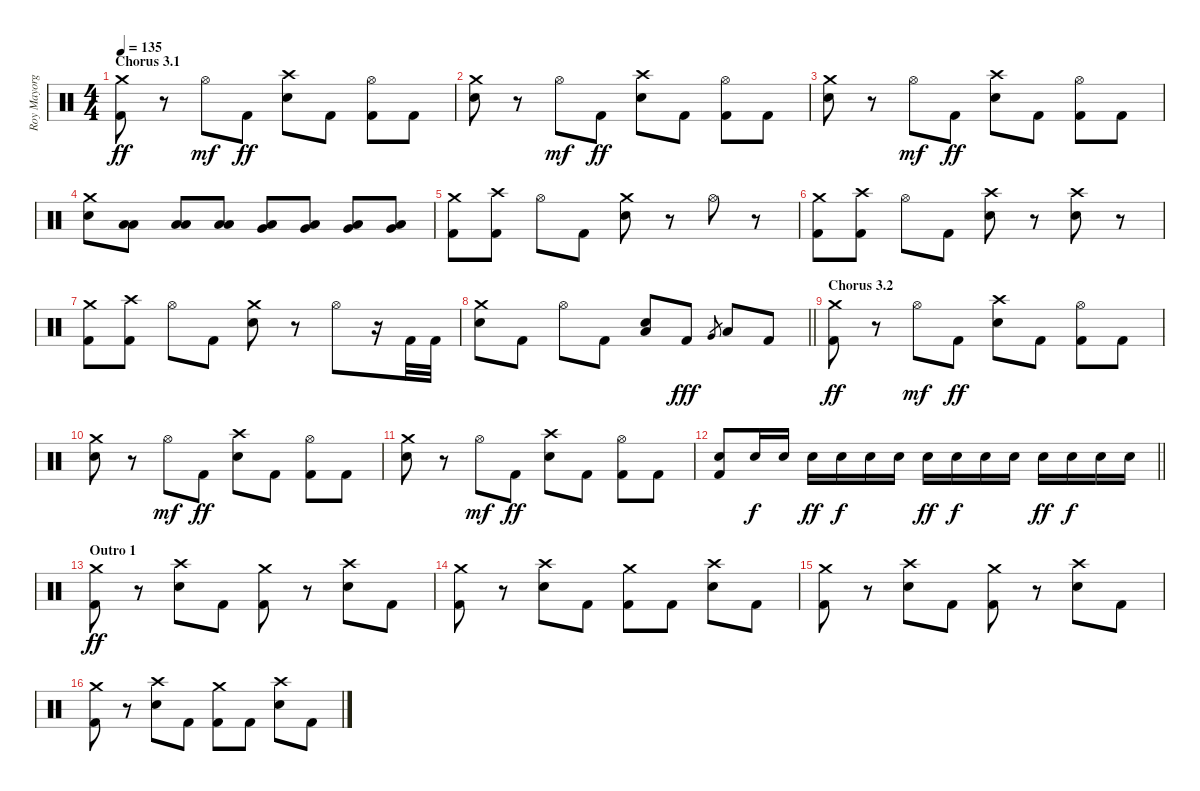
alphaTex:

\track ("Roy Mayorga" "Roy Mayorg") {instrument percussion}
\staff {score}
\articulation defaults
\ts (4 4)
\section ("" "Chorus 3.1")
\tempo 135
\clef neutral
\ks c
("Crash medium (hit)" "Kick (hit) 2").8{dy ff} r.8 "Hi-Hat (open)".8{dy mf} "Kick (hit) 2".8{dy ff} ("Crash high (hit)" "Electric Snare (hit)").8 "Kick (hit) 2".8 ("Hi-Hat (open)" "Kick (hit) 2").8 "Kick (hit) 2".8 |
("Crash medium (hit)" "Electric Snare (hit)").8 r.8 "Hi-Hat (open)".8{dy mf} "Kick (hit) 2".8{dy ff} ("Crash high (hit)" "Electric Snare (hit)").8 "Kick (hit) 2".8 ("Hi-Hat (open)" "Kick (hit) 2").8 "Kick (hit) 2".8 |
("Crash medium (hit)" "Electric Snare (hit)").8 r.8 "Hi-Hat (open)".8{dy mf} "Kick (hit) 2".8{dy ff} ("Crash high (hit)" "Electric Snare (hit)").8 "Kick (hit) 2".8 ("Hi-Hat (open)" "Kick (hit) 2").8 "Kick (hit) 2".8 |
("Crash medium (hit)" "Electric Snare (hit)").8 ("Low Floor Tom (hit)" "Low Floor Tom (hit)").8 ("Low Floor Tom (hit)" "Low Floor Tom (hit)").8 ("Low Floor Tom (hit)" "Low Floor Tom (hit)").8 ("Very Low Tom (hit)" "Low Floor Tom (hit)").8 ("Very Low Tom (hit)" "Low Floor Tom (hit)").8 ("Very Low Tom (hit)" "Low Floor Tom (hit)").8 ("Very Low Tom (hit)" "Low Floor Tom (hit)").8 |
("Crash medium (hit)" "Kick (hit) 2").8 ("Crash high (hit)" "Kick (hit) 2").8 "Hi-Hat (open)".8 "Kick (hit) 2".8 ("Crash medium (hit)" "Electric Snare (hit)").8 r.8 "Hi-Hat (open)".8 r.8 |
("Crash medium (hit)" "Kick (hit) 2").8 ("Crash high (hit)" "Kick (hit) 2").8 "Hi-Hat (open)".8 "Kick (hit) 2".8 ("Crash high (hit)" "Electric Snare (hit)").8 r.8 ("Crash high (hit)" "Electric Snare (hit)").8 r.8 |
("Crash medium (hit)" "Kick (hit) 2").8 ("Crash high (hit)" "Kick (hit) 2").8 "Hi-Hat (open)".8 "Kick (hit) 2".8 ("Crash medium (hit)" "Electric Snare (hit)").8 r.8 "Hi-Hat (open)".8 r.16 "Kick (hit) 2".32 "Kick (hit) 2".32 |
\barLineRight lightlight
("Crash medium (hit)" "Electric Snare (hit)").8 "Kick (hit) 2".8 "Hi-Hat (open)".8 "Kick (hit) 2".8 ("Electric Snare (hit)" "Low Floor Tom (hit)").8 "Kick (hit) 2".8{dy fff} "Very Low Tom (hit)".8{gr} "Low Tom (hit)".8 "Kick (hit) 2".8 |
\section ("" "Chorus 3.2")
("Crash medium (hit)" "Kick (hit) 2").8{dy ff} r.8 "Hi-Hat (open)".8{dy mf} "Kick (hit) 2".8{dy ff} ("Crash high (hit)" "Electric Snare (hit)").8 "Kick (hit) 2".8 ("Hi-Hat (open)" "Kick (hit) 2").8 "Kick (hit) 2".8 |
("Crash medium (hit)" "Electric Snare (hit)").8 r.8 "Hi-Hat (open)".8{dy mf} "Kick (hit) 2".8{dy ff} ("Crash high (hit)" "Electric Snare (hit)").8 "Kick (hit) 2".8 ("Hi-Hat (open)" "Kick (hit) 2").8 "Kick (hit) 2".8 |
("Crash medium (hit)" "Electric Snare (hit)").8 r.8 "Hi-Hat (open)".8{dy mf} "Kick (hit) 2".8{dy ff} ("Crash high (hit)" "Electric Snare (hit)").8 "Kick (hit) 2".8 ("Hi-Hat (open)" "Kick (hit) 2").8 "Kick (hit) 2".8 |
\barLineRight lightlight
("Electric Snare (hit)" "Kick (hit) 2").8 "Electric Snare (hit)".16{dy f} "Electric Snare (hit)".16 "Electric Snare (hit)".16{dy ff} "Electric Snare (hit)".16{dy f} "Electric Snare (hit)".16 "Electric Snare (hit)".16 "Electric Snare (hit)".16{dy ff} "Electric Snare (hit)".16{dy f} "Electric Snare (hit)".16 "Electric Snare (hit)".16 "Electric Snare (hit)".16{dy ff} "Electric Snare (hit)".16{dy f} "Electric Snare (hit)".16 "Electric Snare (hit)".16 |
\section ("" "Outro 1")
("Crash medium (hit)" "Kick (hit) 2").8{dy ff} r.8 ("Crash high (hit)" "Electric Snare (hit)").8 "Kick (hit) 2".8 ("Crash medium (hit)" "Kick (hit) 2").8 r.8 ("Crash high (hit)" "Electric Snare (hit)").8 "Kick (hit) 2".8 |
("Crash medium (hit)" "Kick (hit) 2").8 r.8 ("Crash high (hit)" "Electric Snare (hit)").8 "Kick (hit) 2".8 ("Crash medium (hit)" "Kick (hit) 2").8 "Kick (hit) 2".8 ("Crash high (hit)" "Electric Snare (hit)").8 "Kick (hit) 2".8 |
("Crash medium (hit)" "Kick (hit) 2").8 r.8 ("Crash high (hit)" "Electric Snare (hit)").8 "Kick (hit) 2".8 ("Crash medium (hit)" "Kick (hit) 2").8 r.8 ("Crash high (hit)" "Electric Snare (hit)").8 "Kick (hit) 2".8 |
("Crash medium (hit)" "Kick (hit) 2").8 r.8 ("Crash high (hit)" "Electric Snare (hit)").8 "Kick (hit) 2".8 ("Crash medium (hit)" "Kick (hit) 2").8 "Kick (hit) 2".8 ("Crash high (hit)" "Electric Snare (hit)").8 "Kick (hit) 2".8
